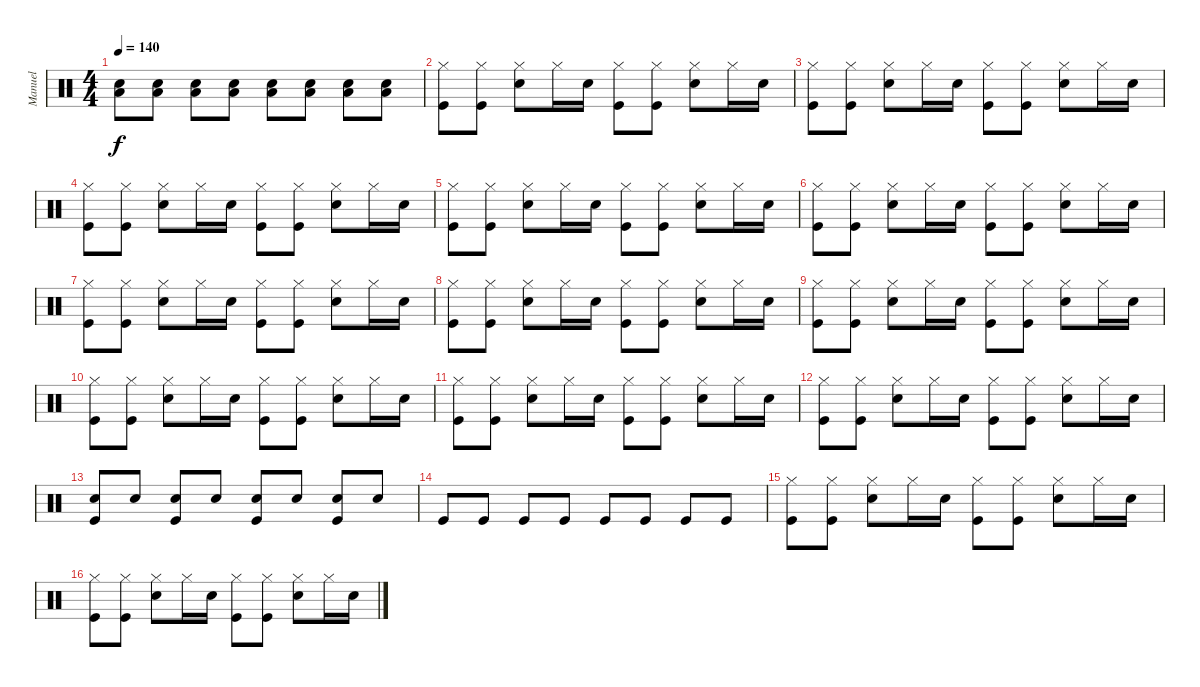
\track ("Manuel" "Manuel") {instrument percussion}
\staff {score}
\articulation defaults
\ts (4 4)
\tempo 140
\clef neutral
\ks c
("Low Tom (hit)" "Electric Snare (hit)").8{dy f} ("Low Tom (hit)" "Electric Snare (hit)").8 ("Low Tom (hit)" "Electric Snare (hit)").8 ("Low Tom (hit)" "Electric Snare (hit)").8 ("Low Tom (hit)" "Electric Snare (hit)").8 ("Low Tom (hit)" "Electric Snare (hit)").8 ("Low Tom (hit)" "Electric Snare (hit)").8 ("Low Tom (hit)" "Electric Snare (hit)").8 |
("Hi-Hat (closed)" "Kick (hit)").8 ("Hi-Hat (closed)" "Kick (hit)").8 ("Hi-Hat (closed)" "Snare (hit) 2").8 "Hi-Hat (closed)".16 "Snare (hit) 2".16 ("Hi-Hat (closed)" "Kick (hit)").8 ("Hi-Hat (closed)" "Kick (hit)").8 ("Hi-Hat (closed)" "Snare (hit) 2").8 "Hi-Hat (closed)".16 "Snare (hit) 2".16 |
("Hi-Hat (closed)" "Kick (hit)").8 ("Hi-Hat (closed)" "Kick (hit)").8 ("Hi-Hat (closed)" "Snare (hit) 2").8 "Hi-Hat (closed)".16 "Snare (hit) 2".16 ("Hi-Hat (closed)" "Kick (hit)").8 ("Hi-Hat (closed)" "Kick (hit)").8 ("Hi-Hat (closed)" "Snare (hit) 2").8 "Hi-Hat (closed)".16 "Snare (hit) 2".16 |
("Hi-Hat (closed)" "Kick (hit)").8 ("Hi-Hat (closed)" "Kick (hit)").8 ("Hi-Hat (closed)" "Snare (hit) 2").8 "Hi-Hat (closed)".16 "Snare (hit) 2".16 ("Hi-Hat (closed)" "Kick (hit)").8 ("Hi-Hat (closed)" "Kick (hit)").8 ("Hi-Hat (closed)" "Snare (hit) 2").8 "Hi-Hat (closed)".16 "Snare (hit) 2".16 |
("Hi-Hat (closed)" "Kick (hit)").8 ("Hi-Hat (closed)" "Kick (hit)").8 ("Hi-Hat (closed)" "Snare (hit) 2").8 "Hi-Hat (closed)".16 "Snare (hit) 2".16 ("Hi-Hat (closed)" "Kick (hit)").8 ("Hi-Hat (closed)" "Kick (hit)").8 ("Hi-Hat (closed)" "Snare (hit) 2").8 "Hi-Hat (closed)".16 "Snare (hit) 2".16 |
("Hi-Hat (closed)" "Kick (hit)").8 ("Hi-Hat (closed)" "Kick (hit)").8 ("Hi-Hat (closed)" "Snare (hit) 2").8 "Hi-Hat (closed)".16 "Snare (hit) 2".16 ("Hi-Hat (closed)" "Kick (hit)").8 ("Hi-Hat (closed)" "Kick (hit)").8 ("Hi-Hat (closed)" "Snare (hit) 2").8 "Hi-Hat (closed)".16 "Snare (hit) 2".16 |
("Hi-Hat (closed)" "Kick (hit)").8 ("Hi-Hat (closed)" "Kick (hit)").8 ("Hi-Hat (closed)" "Snare (hit) 2").8 "Hi-Hat (closed)".16 "Snare (hit) 2".16 ("Hi-Hat (closed)" "Kick (hit)").8 ("Hi-Hat (closed)" "Kick (hit)").8 ("Hi-Hat (closed)" "Snare (hit) 2").8 "Hi-Hat (closed)".16 "Snare (hit) 2".16 |
("Hi-Hat (closed)" "Kick (hit)").8 ("Hi-Hat (closed)" "Kick (hit)").8 ("Hi-Hat (closed)" "Snare (hit) 2").8 "Hi-Hat (closed)".16 "Snare (hit) 2".16 ("Hi-Hat (closed)" "Kick (hit)").8 ("Hi-Hat (closed)" "Kick (hit)").8 ("Hi-Hat (closed)" "Snare (hit) 2").8 "Hi-Hat (closed)".16 "Snare (hit) 2".16 |
("Hi-Hat (closed)" "Kick (hit)").8 ("Hi-Hat (closed)" "Kick (hit)").8 ("Hi-Hat (closed)" "Snare (hit) 2").8 "Hi-Hat (closed)".16 "Snare (hit) 2".16 ("Hi-Hat (closed)" "Kick (hit)").8 ("Hi-Hat (closed)" "Kick (hit)").8 ("Hi-Hat (closed)" "Snare (hit) 2").8 "Hi-Hat (closed)".16 "Snare (hit) 2".16 |
("Hi-Hat (closed)" "Kick (hit)").8 ("Hi-Hat (closed)" "Kick (hit)").8 ("Hi-Hat (closed)" "Snare (hit) 2").8 "Hi-Hat (closed)".16 "Snare (hit) 2".16 ("Hi-Hat (closed)" "Kick (hit)").8 ("Hi-Hat (closed)" "Kick (hit)").8 ("Hi-Hat (closed)" "Snare (hit) 2").8 "Hi-Hat (closed)".16 "Snare (hit) 2".16 |
("Hi-Hat (closed)" "Kick (hit)").8 ("Hi-Hat (closed)" "Kick (hit)").8 ("Hi-Hat (closed)" "Snare (hit) 2").8 "Hi-Hat (closed)".16 "Snare (hit) 2".16 ("Hi-Hat (closed)" "Kick (hit)").8 ("Hi-Hat (closed)" "Kick (hit)").8 ("Hi-Hat (closed)" "Snare (hit) 2").8 "Hi-Hat (closed)".16 "Snare (hit) 2".16 |
("Hi-Hat (closed)" "Kick (hit)").8 ("Hi-Hat (closed)" "Kick (hit)").8 ("Hi-Hat (closed)" "Snare (hit) 2").8 "Hi-Hat (closed)".16 "Snare (hit) 2".16 ("Hi-Hat (closed)" "Kick (hit)").8 ("Hi-Hat (closed)" "Kick (hit)").8 ("Hi-Hat (closed)" "Snare (hit) 2").8 "Hi-Hat (closed)".16 "Snare (hit) 2".16 |
("Kick (hit)" "Electric Snare (hit)").8 "Electric Snare (hit)".8 ("Kick (hit)" "Electric Snare (hit)").8 "Electric Snare (hit)".8 ("Kick (hit)" "Electric Snare (hit)").8 "Electric Snare (hit)".8 ("Kick (hit)" "Electric Snare (hit)").8 "Electric Snare (hit)".8 |
"Kick (hit)".8 "Kick (hit)".8 "Kick (hit)".8 "Kick (hit)".8 "Kick (hit)".8 "Kick (hit)".8 "Kick (hit)".8 "Kick (hit)".8 |
("Hi-Hat (closed)" "Kick (hit)").8 ("Hi-Hat (closed)" "Kick (hit)").8 ("Hi-Hat (closed)" "Snare (hit) 2").8 "Hi-Hat (closed)".16 "Snare (hit) 2".16 ("Hi-Hat (closed)" "Kick (hit)").8 ("Hi-Hat (closed)" "Kick (hit)").8 ("Hi-Hat (closed)" "Snare (hit) 2").8 "Hi-Hat (closed)".16 "Snare (hit) 2".16 |
("Hi-Hat (closed)" "Kick (hit)").8 ("Hi-Hat (closed)" "Kick (hit)").8 ("Hi-Hat (closed)" "Snare (hit) 2").8 "Hi-Hat (closed)".16 "Snare (hit) 2".16 ("Hi-Hat (closed)" "Kick (hit)").8 ("Hi-Hat (closed)" "Kick (hit)").8 ("Hi-Hat (closed)" "Snare (hit) 2").8 "Hi-Hat (closed)".16 "Snare (hit) 2".16
